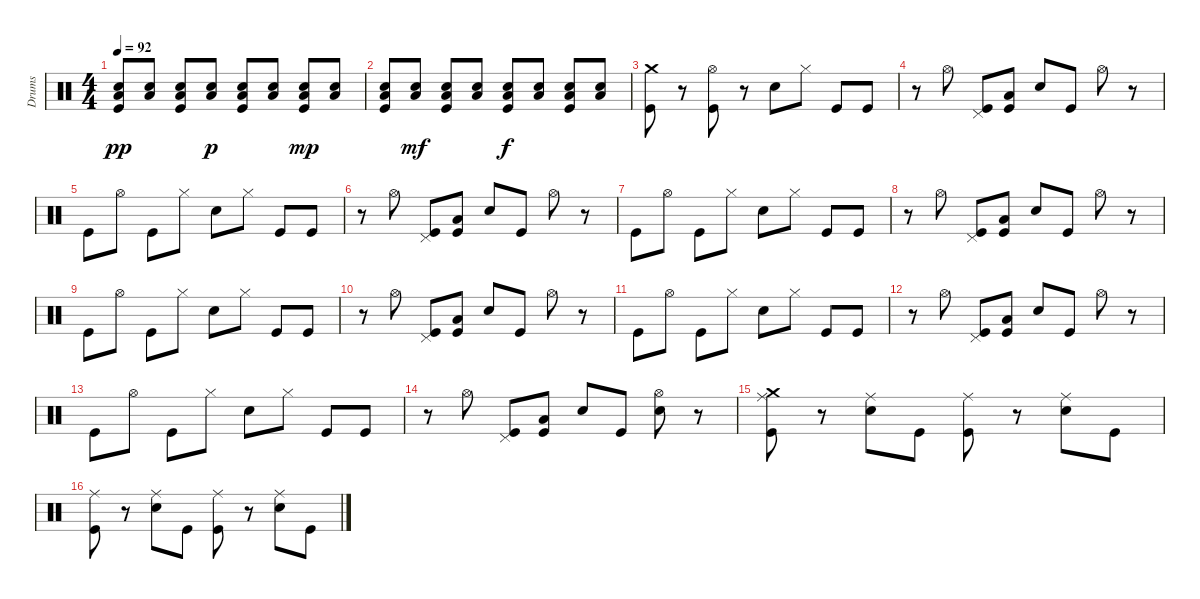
\track ("Drums" "Drums") {instrument percussion}
\staff {score}
\articulation defaults
\ts (4 4)
\tempo 92
\clef neutral
\ks c
("Snare (hit) 2" "Low Floor Tom (hit)" "Kick (hit)").8{dy pp} ("Snare (hit) 2" "Low Floor Tom (hit)").8 ("Snare (hit) 2" "Low Floor Tom (hit)" "Kick (hit)").8 ("Snare (hit) 2" "Low Floor Tom (hit)").8{dy p} ("Snare (hit) 2" "Low Floor Tom (hit)" "Kick (hit)").8 ("Snare (hit) 2" "Low Floor Tom (hit)").8 ("Snare (hit) 2" "Low Floor Tom (hit)" "Kick (hit)").8{dy mp} ("Snare (hit) 2" "Low Floor Tom (hit)").8 |
("Snare (hit) 2" "Low Floor Tom (hit)" "Kick (hit)").8 ("Snare (hit) 2" "Low Floor Tom (hit)").8{dy mf} ("Snare (hit) 2" "Low Floor Tom (hit)" "Kick (hit)").8 ("Snare (hit) 2" "Low Floor Tom (hit)").8 ("Snare (hit) 2" "Low Floor Tom (hit)" "Kick (hit)").8{dy f} ("Snare (hit) 2" "Low Floor Tom (hit)").8 ("Snare (hit) 2" "Low Floor Tom (hit)" "Kick (hit)").8 ("Snare (hit) 2" "Low Floor Tom (hit)").8 |
("Crash medium (hit)" "Kick (hit)").8 r.8 ("Hi-Hat (open)" "Kick (hit)").8 r.8 "Snare (hit) 2".8 "Hi-Hat (closed)".8 "Kick (hit)".8 "Kick (hit)".8 |
r.8 "Hi-Hat (open)".8 ("Pedal Hi-Hat (hit)" "Kick (hit)").8 ("Low Floor Tom (hit)" "Kick (hit)").8 "Snare (hit) 2".8 "Kick (hit)".8 "Hi-Hat (open)".8 r.8 |
"Kick (hit)".8 "Hi-Hat (open)".8 "Kick (hit)".8 "Hi-Hat (closed)".8 "Snare (hit) 2".8 "Hi-Hat (closed)".8 "Kick (hit)".8 "Kick (hit)".8 |
r.8 "Hi-Hat (open)".8 ("Pedal Hi-Hat (hit)" "Kick (hit)").8 ("Low Floor Tom (hit)" "Kick (hit)").8 "Snare (hit) 2".8 "Kick (hit)".8 "Hi-Hat (open)".8 r.8 |
"Kick (hit)".8 "Hi-Hat (open)".8 "Kick (hit)".8 "Hi-Hat (closed)".8 "Snare (hit) 2".8 "Hi-Hat (closed)".8 "Kick (hit)".8 "Kick (hit)".8 |
r.8 "Hi-Hat (open)".8 ("Pedal Hi-Hat (hit)" "Kick (hit)").8 ("Low Floor Tom (hit)" "Kick (hit)").8 "Snare (hit) 2".8 "Kick (hit)".8 "Hi-Hat (open)".8 r.8 |
"Kick (hit)".8 "Hi-Hat (open)".8 "Kick (hit)".8 "Hi-Hat (closed)".8 "Snare (hit) 2".8 "Hi-Hat (closed)".8 "Kick (hit)".8 "Kick (hit)".8 |
r.8 "Hi-Hat (open)".8 ("Pedal Hi-Hat (hit)" "Kick (hit)").8 ("Low Floor Tom (hit)" "Kick (hit)").8 "Snare (hit) 2".8 "Kick (hit)".8 "Hi-Hat (open)".8 r.8 |
"Kick (hit)".8 "Hi-Hat (open)".8 "Kick (hit)".8 "Hi-Hat (closed)".8 "Snare (hit) 2".8 "Hi-Hat (closed)".8 "Kick (hit)".8 "Kick (hit)".8 |
r.8 "Hi-Hat (open)".8 ("Pedal Hi-Hat (hit)" "Kick (hit)").8 ("Low Floor Tom (hit)" "Kick (hit)").8 "Snare (hit) 2".8 "Kick (hit)".8 "Hi-Hat (open)".8 r.8 |
"Kick (hit)".8 "Hi-Hat (open)".8 "Kick (hit)".8 "Hi-Hat (closed)".8 "Snare (hit) 2".8 "Hi-Hat (closed)".8 "Kick (hit)".8 "Kick (hit)".8 |
r.8 "Hi-Hat (open)".8 ("Pedal Hi-Hat (hit)" "Kick (hit)").8 ("Low Floor Tom (hit)" "Kick (hit)").8 "Snare (hit) 2".8 "Kick (hit)".8 ("Hi-Hat (open)" "Snare (hit) 2").8 r.8 |
("Crash medium (hit)" "Ride (middle)" "Kick (hit)").8 r.8 ("Ride (middle)" "Snare (hit) 2").8 "Kick (hit)".8 ("Ride (middle)" "Kick (hit)").8 r.8 ("Ride (middle)" "Snare (hit) 2").8 "Kick (hit)".8 |
("Ride (middle)" "Kick (hit)").8 r.8 ("Ride (middle)" "Snare (hit) 2").8 "Kick (hit)".8 ("Ride (middle)" "Kick (hit)").8 r.8 ("Ride (middle)" "Snare (hit) 2").8 "Kick (hit)".8
